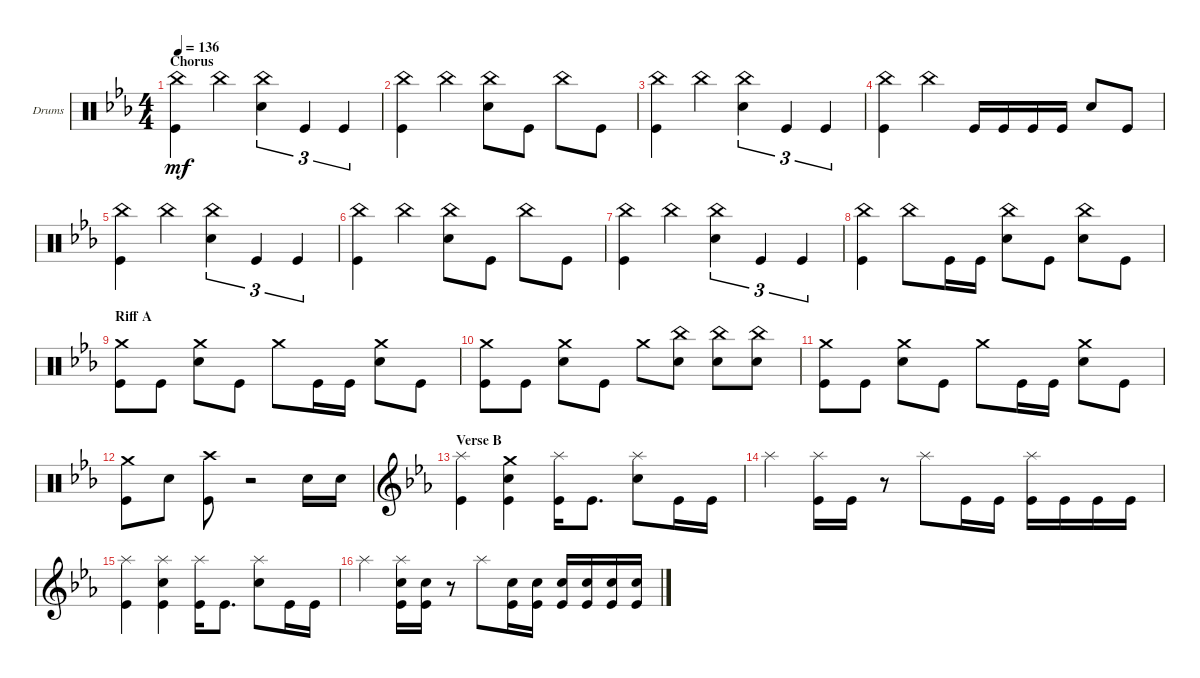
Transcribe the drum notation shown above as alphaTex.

\defaultSystemsLayout 4
\bracketExtendMode groupsimilarinstruments
\firstSystemTrackNameOrientation horizontal
\otherSystemsTrackNameOrientation horizontal
\track ("Drumkit" "Drums") {instrument percussion}
\staff {score}
\articulation defaults
\ts (4 4)
\section ("" "Chorus")
\tempo 136
\clef neutral
\scale
0.333333
\ks cminor
("Kick (hit)" "China (hit)").4{dy mf} "China (hit)".4 ("Snare (hit) 2" "China (hit)").4{tu (3 2)} "Kick (hit)".4{tu (3 2)} "Kick (hit)".4{tu (3 2)} |
\scale
0.333333 ("Kick (hit)" "China (hit)").4 "China (hit)".4 ("Snare (hit) 2" "China (hit)").8 "Kick (hit)".8 "China (hit)".8 "Kick (hit)".8 |
\scale
0.333333 ("Kick (hit)" "China (hit)").4 "China (hit)".4 ("Snare (hit) 2" "China (hit)").4{tu (3 2)} "Kick (hit)".4{tu (3 2)} "Kick (hit)".4{tu (3 2)} |
\scale
0.333333 ("Kick (hit)" "China (hit)").4 "China (hit)".4 "Kick (hit)".16 "Kick (hit)".16 "Kick (hit)".16 "Kick (hit)".16 "Snare (hit) 2".8 "Kick (hit)".8 |
\scale
0.333333 ("Kick (hit)" "China (hit)").4 "China (hit)".4 ("Snare (hit) 2" "China (hit)").4{tu (3 2)} "Kick (hit)".4{tu (3 2)} "Kick (hit)".4{tu (3 2)} |
\scale
0.333333 ("Kick (hit)" "China (hit)").4 "China (hit)".4 ("Snare (hit) 2" "China (hit)").8 "Kick (hit)".8 "China (hit)".8 "Kick (hit)".8 |
\scale
0.333333 ("Kick (hit)" "China (hit)").4 "China (hit)".4 ("Snare (hit) 2" "China (hit)").4{tu (3 2)} "Kick (hit)".4{tu (3 2)} "Kick (hit)".4{tu (3 2)} |
\scale
0.333333 ("Kick (hit)" "China (hit)").4 "China (hit)".8 "Kick (hit)".16 "Kick (hit)".16 ("Snare (hit) 2" "China (hit)").8 "Kick (hit)".8 ("Snare (hit) 2" "China (hit)").8 "Kick (hit)".8 |
\section ("" "Riff A")
\scale
0.333333 ("Kick (hit)" "Crash medium (hit)").8 "Kick (hit)".8 ("Snare (hit) 2" "Crash medium (hit)").8 "Kick (hit)".8 "Crash medium (hit)".8 "Kick (hit)".16 "Kick (hit)".16 ("Snare (hit) 2" "Crash medium (hit)").8 "Kick (hit)".8 |
\scale
0.333333 ("Kick (hit)" "Crash medium (hit)").8 "Kick (hit)".8 ("Snare (hit) 2" "Crash medium (hit)").8 "Kick (hit)".8 "Crash medium (hit)".8 ("Snare (hit) 2" "China (hit)").8 ("Snare (hit) 2" "China (hit)").8 ("Snare (hit) 2" "China (hit)").8 |
\scale
0.333333 ("Kick (hit)" "Crash medium (hit)").8 "Kick (hit)".8 ("Snare (hit) 2" "Crash medium (hit)").8 "Kick (hit)".8 "Crash medium (hit)".8 "Kick (hit)".16 "Kick (hit)".16 ("Snare (hit) 2" "Crash medium (hit)").8 "Kick (hit)".8 |
\scale
0.333333 ("Kick (hit)" "Crash medium (hit)").8 "Snare (hit) 2".8 ("Kick (hit)" "Crash high (hit)").8 r.2 "Snare (hit) 2".16 "Snare (hit) 2".16 |
\section ("" "Verse B")
\clef g2
\scale
0.333333 ("Kick (hit)" "Splash (hit)").4 ("Kick (hit)" "Snare (hit) 2" "Crash medium (hit)").4 ("Kick (hit)" "Splash (hit)").16 "Kick (hit)".8{d} ("Snare (hit) 2" "Splash (hit)").8 "Kick (hit)".16 "Kick (hit)".16 |
\scale
0.333333 "Splash (hit)".4 ("Kick (hit)" "Splash (hit)").16 "Kick (hit)".16 r.8 "Splash (hit)".8 "Kick (hit)".16 "Kick (hit)".16 ("Kick (hit)" "Splash (hit)").16 "Kick (hit)".16 "Kick (hit)".16 "Kick (hit)".16 |
\scale
0.333333 ("Kick (hit)" "Splash (hit)").4 ("Kick (hit)" "Snare (hit) 2" "Splash (hit)").4 ("Kick (hit)" "Splash (hit)").16 "Kick (hit)".8{d} ("Snare (hit) 2" "Splash (hit)").8 "Kick (hit)".16 "Kick (hit)".16 |
\scale
0.333333 "Splash (hit)".4 ("Kick (hit)" "Snare (hit) 2" "Splash (hit)").16 ("Kick (hit)" "Snare (hit) 2").16 r.8 "Splash (hit)".8 ("Kick (hit)" "Snare (hit) 2").16 ("Kick (hit)" "Snare (hit) 2").16 ("Kick (hit)" "Snare (hit) 2").16 ("Kick (hit)" "Snare (hit) 2").16 ("Kick (hit)" "Snare (hit) 2").16 ("Kick (hit)" "Snare (hit) 2").16
